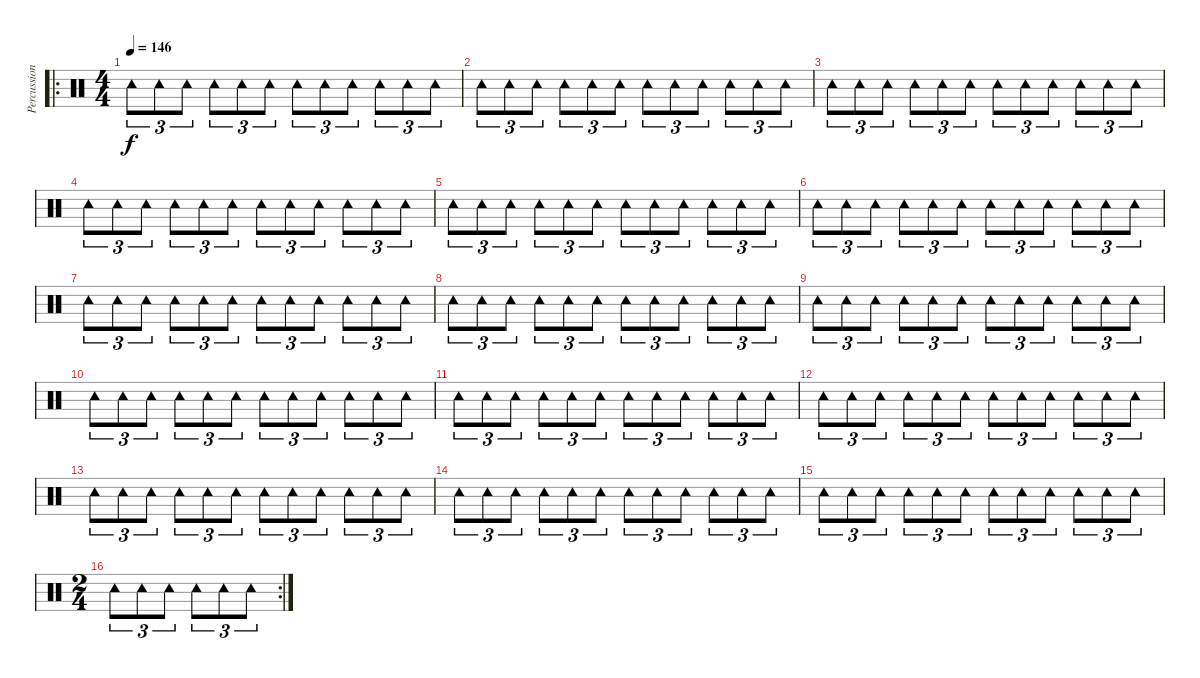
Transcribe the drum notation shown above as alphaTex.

\track ("Percussions" "Percussion") {instrument percussion}
\staff {score}
\articulation defaults
\ro
\ts (4 4)
\tempo 146
\clef neutral
\ks c "Tambourine (hit)".8{tu (3 2) dy f} "Tambourine (hit)".8{tu (3 2)} "Tambourine (hit)".8{tu (3 2)} "Tambourine (hit)".8{tu (3 2)} "Tambourine (hit)".8{tu (3 2)} "Tambourine (hit)".8{tu (3 2)} "Tambourine (hit)".8{tu (3 2)} "Tambourine (hit)".8{tu (3 2)} "Tambourine (hit)".8{tu (3 2)} "Tambourine (hit)".8{tu (3 2)} "Tambourine (hit)".8{tu (3 2)} "Tambourine (hit)".8{tu (3 2)}
|
"Tambourine (hit)".8{tu (3 2)} "Tambourine (hit)".8{tu (3 2)} "Tambourine (hit)".8{tu (3 2)} "Tambourine (hit)".8{tu (3 2)} "Tambourine (hit)".8{tu (3 2)} "Tambourine (hit)".8{tu (3 2)} "Tambourine (hit)".8{tu (3 2)} "Tambourine (hit)".8{tu (3 2)} "Tambourine (hit)".8{tu (3 2)} "Tambourine (hit)".8{tu (3 2)} "Tambourine (hit)".8{tu (3 2)} "Tambourine (hit)".8{tu (3 2)} |
"Tambourine (hit)".8{tu (3 2)} "Tambourine (hit)".8{tu (3 2)} "Tambourine (hit)".8{tu (3 2)} "Tambourine (hit)".8{tu (3 2)} "Tambourine (hit)".8{tu (3 2)} "Tambourine (hit)".8{tu (3 2)} "Tambourine (hit)".8{tu (3 2)} "Tambourine (hit)".8{tu (3 2)} "Tambourine (hit)".8{tu (3 2)} "Tambourine (hit)".8{tu (3 2)} "Tambourine (hit)".8{tu (3 2)} "Tambourine (hit)".8{tu (3 2)} |
"Tambourine (hit)".8{tu (3 2)} "Tambourine (hit)".8{tu (3 2)} "Tambourine (hit)".8{tu (3 2)} "Tambourine (hit)".8{tu (3 2)} "Tambourine (hit)".8{tu (3 2)} "Tambourine (hit)".8{tu (3 2)} "Tambourine (hit)".8{tu (3 2)} "Tambourine (hit)".8{tu (3 2)} "Tambourine (hit)".8{tu (3 2)} "Tambourine (hit)".8{tu (3 2)} "Tambourine (hit)".8{tu (3 2)} "Tambourine (hit)".8{tu (3 2)} |
"Tambourine (hit)".8{tu (3 2)} "Tambourine (hit)".8{tu (3 2)} "Tambourine (hit)".8{tu (3 2)} "Tambourine (hit)".8{tu (3 2)} "Tambourine (hit)".8{tu (3 2)} "Tambourine (hit)".8{tu (3 2)} "Tambourine (hit)".8{tu (3 2)} "Tambourine (hit)".8{tu (3 2)} "Tambourine (hit)".8{tu (3 2)} "Tambourine (hit)".8{tu (3 2)} "Tambourine (hit)".8{tu (3 2)} "Tambourine (hit)".8{tu (3 2)} |
"Tambourine (hit)".8{tu (3 2)} "Tambourine (hit)".8{tu (3 2)} "Tambourine (hit)".8{tu (3 2)} "Tambourine (hit)".8{tu (3 2)} "Tambourine (hit)".8{tu (3 2)} "Tambourine (hit)".8{tu (3 2)} "Tambourine (hit)".8{tu (3 2)} "Tambourine (hit)".8{tu (3 2)} "Tambourine (hit)".8{tu (3 2)} "Tambourine (hit)".8{tu (3 2)} "Tambourine (hit)".8{tu (3 2)} "Tambourine (hit)".8{tu (3 2)} |
"Tambourine (hit)".8{tu (3 2)} "Tambourine (hit)".8{tu (3 2)} "Tambourine (hit)".8{tu (3 2)} "Tambourine (hit)".8{tu (3 2)} "Tambourine (hit)".8{tu (3 2)} "Tambourine (hit)".8{tu (3 2)} "Tambourine (hit)".8{tu (3 2)} "Tambourine (hit)".8{tu (3 2)} "Tambourine (hit)".8{tu (3 2)} "Tambourine (hit)".8{tu (3 2)} "Tambourine (hit)".8{tu (3 2)} "Tambourine (hit)".8{tu (3 2)} |
"Tambourine (hit)".8{tu (3 2)} "Tambourine (hit)".8{tu (3 2)} "Tambourine (hit)".8{tu (3 2)} "Tambourine (hit)".8{tu (3 2)} "Tambourine (hit)".8{tu (3 2)} "Tambourine (hit)".8{tu (3 2)} "Tambourine (hit)".8{tu (3 2)} "Tambourine (hit)".8{tu (3 2)} "Tambourine (hit)".8{tu (3 2)} "Tambourine (hit)".8{tu (3 2)} "Tambourine (hit)".8{tu (3 2)} "Tambourine (hit)".8{tu (3 2)} |
"Tambourine (hit)".8{tu (3 2)} "Tambourine (hit)".8{tu (3 2)} "Tambourine (hit)".8{tu (3 2)} "Tambourine (hit)".8{tu (3 2)} "Tambourine (hit)".8{tu (3 2)} "Tambourine (hit)".8{tu (3 2)} "Tambourine (hit)".8{tu (3 2)} "Tambourine (hit)".8{tu (3 2)} "Tambourine (hit)".8{tu (3 2)} "Tambourine (hit)".8{tu (3 2)} "Tambourine (hit)".8{tu (3 2)} "Tambourine (hit)".8{tu (3 2)} |
"Tambourine (hit)".8{tu (3 2)} "Tambourine (hit)".8{tu (3 2)} "Tambourine (hit)".8{tu (3 2)} "Tambourine (hit)".8{tu (3 2)} "Tambourine (hit)".8{tu (3 2)} "Tambourine (hit)".8{tu (3 2)} "Tambourine (hit)".8{tu (3 2)} "Tambourine (hit)".8{tu (3 2)} "Tambourine (hit)".8{tu (3 2)} "Tambourine (hit)".8{tu (3 2)} "Tambourine (hit)".8{tu (3 2)} "Tambourine (hit)".8{tu (3 2)} |
"Tambourine (hit)".8{tu (3 2)} "Tambourine (hit)".8{tu (3 2)} "Tambourine (hit)".8{tu (3 2)} "Tambourine (hit)".8{tu (3 2)} "Tambourine (hit)".8{tu (3 2)} "Tambourine (hit)".8{tu (3 2)} "Tambourine (hit)".8{tu (3 2)} "Tambourine (hit)".8{tu (3 2)} "Tambourine (hit)".8{tu (3 2)} "Tambourine (hit)".8{tu (3 2)} "Tambourine (hit)".8{tu (3 2)} "Tambourine (hit)".8{tu (3 2)} |
"Tambourine (hit)".8{tu (3 2)} "Tambourine (hit)".8{tu (3 2)} "Tambourine (hit)".8{tu (3 2)} "Tambourine (hit)".8{tu (3 2)} "Tambourine (hit)".8{tu (3 2)} "Tambourine (hit)".8{tu (3 2)} "Tambourine (hit)".8{tu (3 2)} "Tambourine (hit)".8{tu (3 2)} "Tambourine (hit)".8{tu (3 2)} "Tambourine (hit)".8{tu (3 2)} "Tambourine (hit)".8{tu (3 2)} "Tambourine (hit)".8{tu (3 2)} |
"Tambourine (hit)".8{tu (3 2)} "Tambourine (hit)".8{tu (3 2)} "Tambourine (hit)".8{tu (3 2)} "Tambourine (hit)".8{tu (3 2)} "Tambourine (hit)".8{tu (3 2)} "Tambourine (hit)".8{tu (3 2)} "Tambourine (hit)".8{tu (3 2)} "Tambourine (hit)".8{tu (3 2)} "Tambourine (hit)".8{tu (3 2)} "Tambourine (hit)".8{tu (3 2)} "Tambourine (hit)".8{tu (3 2)} "Tambourine (hit)".8{tu (3 2)} |
"Tambourine (hit)".8{tu (3 2)} "Tambourine (hit)".8{tu (3 2)} "Tambourine (hit)".8{tu (3 2)} "Tambourine (hit)".8{tu (3 2)} "Tambourine (hit)".8{tu (3 2)} "Tambourine (hit)".8{tu (3 2)} "Tambourine (hit)".8{tu (3 2)} "Tambourine (hit)".8{tu (3 2)} "Tambourine (hit)".8{tu (3 2)} "Tambourine (hit)".8{tu (3 2)} "Tambourine (hit)".8{tu (3 2)} "Tambourine (hit)".8{tu (3 2)} |
"Tambourine (hit)".8{tu (3 2)} "Tambourine (hit)".8{tu (3 2)} "Tambourine (hit)".8{tu (3 2)} "Tambourine (hit)".8{tu (3 2)} "Tambourine (hit)".8{tu (3 2)} "Tambourine (hit)".8{tu (3 2)} "Tambourine (hit)".8{tu (3 2)} "Tambourine (hit)".8{tu (3 2)} "Tambourine (hit)".8{tu (3 2)} "Tambourine (hit)".8{tu (3 2)} "Tambourine (hit)".8{tu (3 2)} "Tambourine (hit)".8{tu (3 2)} |
\rc 2
\ts (2 4)
"Tambourine (hit)".8{tu (3 2)} "Tambourine (hit)".8{tu (3 2)} "Tambourine (hit)".8{tu (3 2)} "Tambourine (hit)".8{tu (3 2)} "Tambourine (hit)".8{tu (3 2)} "Tambourine (hit)".8{tu (3 2)}
